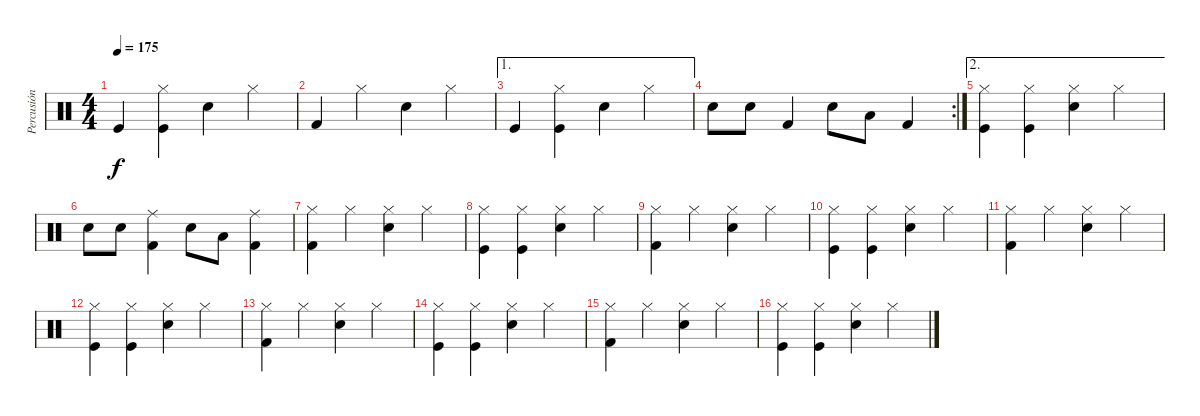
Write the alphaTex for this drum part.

\track ("Percusión" "Percusión") {instrument percussion}
\staff {score}
\articulation defaults
\ts (4 4)
\tempo 175
\clef neutral
\ks c "Kick (hit)".4{dy f}
("Kick (hit)" "Hi-Hat (closed)").4 "Electric Snare (hit)".4 "Hi-Hat (closed)".4 |
"Kick (hit) 2".4 "Hi-Hat (closed)".4 "Snare (hit) 2".4 "Hi-Hat (closed)".4 |
\ae 1 "Kick (hit)".4
("Kick (hit)" "Hi-Hat (closed)").4 "Electric Snare (hit)".4 "Hi-Hat (closed)".4 |
\rc 2 "Snare (hit) 2".8 "Snare (hit) 2".8 "Kick (hit) 2".4 "Snare (hit) 2".8 "Low Floor Tom (hit)".8 "Kick (hit) 2".4
|
\ae 2
("Kick (hit)" "Hi-Hat (closed)").4 ("Kick (hit)" "Hi-Hat (closed)").4 ("Electric Snare (hit)" "Hi-Hat (closed)").4 "Hi-Hat (closed)".4 |
"Snare (hit) 2".8 "Snare (hit) 2".8 ("Kick (hit) 2" "Ride (middle)").4 "Snare (hit) 2".8 "Low Floor Tom (hit)".8 ("Kick (hit) 2" "Ride (middle)").4 |
("Hi-Hat (closed)" "Kick (hit) 2").4 "Hi-Hat (closed)".4 ("Snare (hit) 2" "Hi-Hat (closed)").4 "Hi-Hat (closed)".4 |
("Kick (hit)" "Hi-Hat (closed)").4 ("Kick (hit)" "Hi-Hat (closed)").4 ("Snare (hit) 2" "Hi-Hat (closed)").4 "Hi-Hat (closed)".4 |
("Hi-Hat (closed)" "Kick (hit) 2").4 "Hi-Hat (closed)".4 ("Snare (hit) 2" "Hi-Hat (closed)").4 "Hi-Hat (closed)".4 |
("Kick (hit)" "Hi-Hat (closed)").4 ("Kick (hit)" "Hi-Hat (closed)").4 ("Snare (hit) 2" "Hi-Hat (closed)").4 "Hi-Hat (closed)".4 |
("Hi-Hat (closed)" "Kick (hit) 2").4 "Hi-Hat (closed)".4 ("Snare (hit) 2" "Hi-Hat (closed)").4 "Hi-Hat (closed)".4 |
("Kick (hit)" "Hi-Hat (closed)").4 ("Kick (hit)" "Hi-Hat (closed)").4 ("Snare (hit) 2" "Hi-Hat (closed)").4 "Hi-Hat (closed)".4 |
("Hi-Hat (closed)" "Kick (hit) 2").4 "Hi-Hat (closed)".4 ("Snare (hit) 2" "Hi-Hat (closed)").4 "Hi-Hat (closed)".4 |
("Kick (hit)" "Hi-Hat (closed)").4 ("Kick (hit)" "Hi-Hat (closed)").4 ("Snare (hit) 2" "Hi-Hat (closed)").4 "Hi-Hat (closed)".4 |
("Hi-Hat (closed)" "Kick (hit) 2").4 "Hi-Hat (closed)".4 ("Snare (hit) 2" "Hi-Hat (closed)").4 "Hi-Hat (closed)".4 |
("Kick (hit)" "Hi-Hat (closed)").4 ("Kick (hit)" "Hi-Hat (closed)").4 ("Snare (hit) 2" "Hi-Hat (closed)").4 "Hi-Hat (closed)".4
